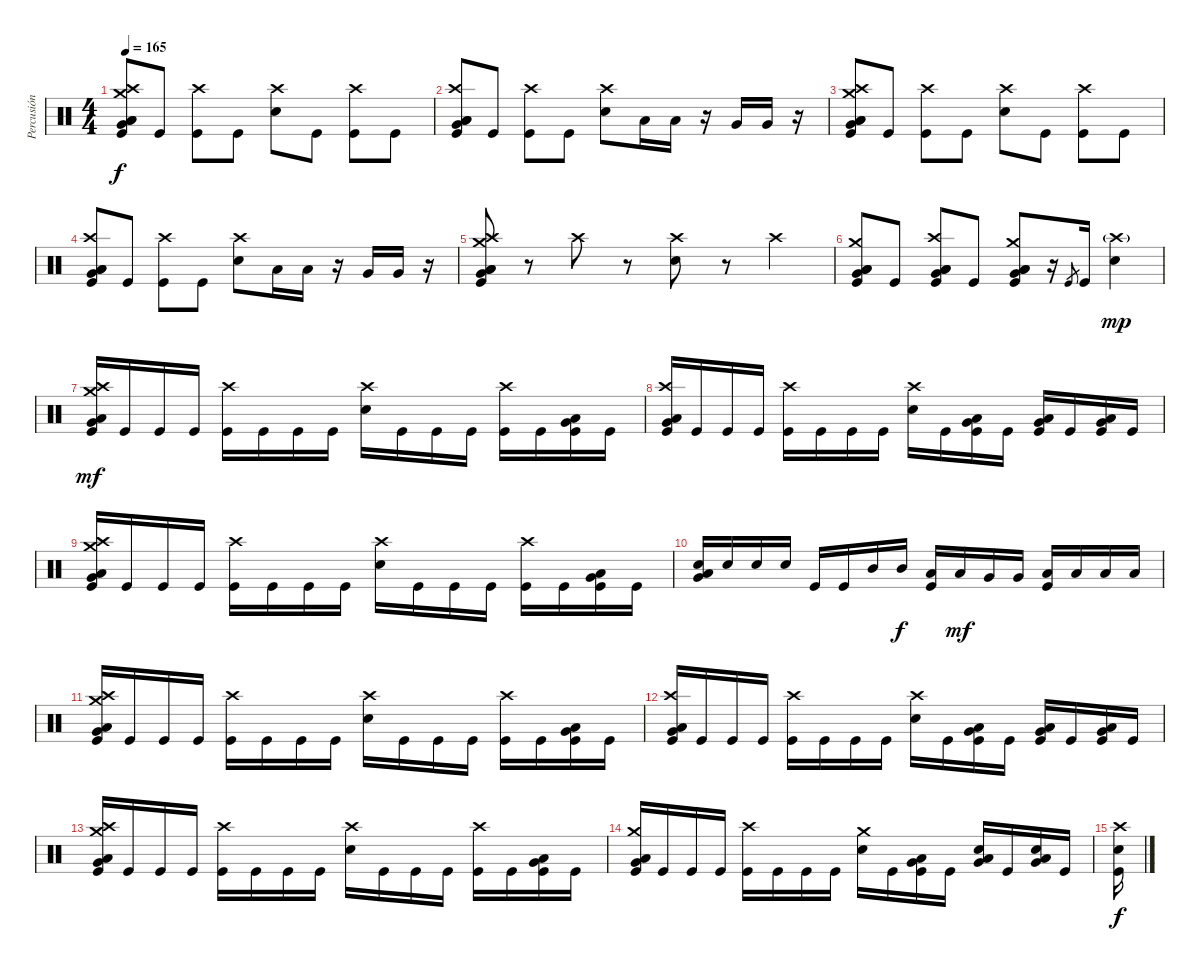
\track ("Percusión" "Percusión") {instrument percussion}
\staff {score}
\articulation defaults
\ts (4 4)
\tempo 165
\clef neutral
\ks c
("Low Floor Tom (hit)" "Very Low Tom (hit)" "Low Tom (hit)" "Crash medium (hit)" "Crash high (hit)" "Kick (hit)").8{dy f} "Kick (hit)".8 ("Crash high (hit)" "Kick (hit)").8 "Kick (hit)".8 ("Crash high (hit)" "Electric Snare (hit)").8 "Kick (hit)".8 ("Crash high (hit)" "Kick (hit)").8 "Kick (hit)".8 |
("Low Floor Tom (hit)" "Very Low Tom (hit)" "Low Tom (hit)" "Crash high (hit)" "Kick (hit)").8 "Kick (hit)".8 ("Crash high (hit)" "Kick (hit)").8 "Kick (hit)".8 ("Crash high (hit)" "Electric Snare (hit)").8 "Low Tom (hit)".16 "Low Tom (hit)".16 r.16 "Very Low Tom (hit)".16 "Very Low Tom (hit)".16 r.16 |
("Low Floor Tom (hit)" "Very Low Tom (hit)" "Low Tom (hit)" "Crash medium (hit)" "Crash high (hit)" "Kick (hit)").8 "Kick (hit)".8 ("Crash high (hit)" "Kick (hit)").8 "Kick (hit)".8 ("Crash high (hit)" "Electric Snare (hit)").8 "Kick (hit)".8 ("Crash high (hit)" "Kick (hit)").8 "Kick (hit)".8 |
("Low Floor Tom (hit)" "Very Low Tom (hit)" "Low Tom (hit)" "Crash high (hit)" "Kick (hit)").8 "Kick (hit)".8 ("Crash high (hit)" "Kick (hit)").8 "Kick (hit)".8 ("Crash high (hit)" "Electric Snare (hit)").8 "Low Tom (hit)".16 "Low Tom (hit)".16 r.16 "Very Low Tom (hit)".16 "Very Low Tom (hit)".16 r.16 |
("Low Floor Tom (hit)" "Very Low Tom (hit)" "Low Tom (hit)" "Crash medium (hit)" "Crash high (hit)" "Kick (hit)").8 r.8 "Crash high (hit)".8 r.8 ("Crash high (hit)" "Electric Snare (hit)").8 r.8 "Crash high (hit)".4 |
("Low Floor Tom (hit)" "Very Low Tom (hit)" "Low Tom (hit)" "Crash medium (hit)" "Kick (hit)").8 "Kick (hit)".8 ("Low Floor Tom (hit)" "Very Low Tom (hit)" "Low Tom (hit)" "Crash high (hit)" "Kick (hit)").8 "Kick (hit)".8 ("Low Floor Tom (hit)" "Very Low Tom (hit)" "Low Tom (hit)" "Crash medium (hit)" "Kick (hit)").8 r.16 "Kick (hit)".8{gr} "Kick (hit)".16 ("Crash high (hit)"{g} "Electric Snare (hit)").4{dy mp} |
("Very Low Tom (hit)" "Low Tom (hit)" "Crash medium (hit)" "Crash high (hit)" "Kick (hit)").16{dy mf} "Kick (hit)".16 "Kick (hit)".16 "Kick (hit)".16 ("Crash high (hit)" "Kick (hit)").16 "Kick (hit)".16 "Kick (hit)".16 "Kick (hit)".16 ("Crash high (hit)" "Electric Snare (hit)").16 "Kick (hit)".16 "Kick (hit)".16 "Kick (hit)".16 ("Crash high (hit)" "Kick (hit)").16 "Kick (hit)".16 ("Very Low Tom (hit)" "Low Tom (hit)" "Kick (hit)").16 "Kick (hit)".16 |
("Very Low Tom (hit)" "Low Tom (hit)" "Crash high (hit)" "Kick (hit)").16 "Kick (hit)".16 "Kick (hit)".16 "Kick (hit)".16 ("Crash high (hit)" "Kick (hit)").16 "Kick (hit)".16 "Kick (hit)".16 "Kick (hit)".16 ("Crash high (hit)" "Electric Snare (hit)").16 "Kick (hit)".16 ("Very Low Tom (hit)" "Low Tom (hit)" "Kick (hit)").16 "Kick (hit)".16 ("Very Low Tom (hit)" "Low Tom (hit)" "Kick (hit)").16 "Kick (hit)".16 ("Very Low Tom (hit)" "Low Tom (hit)" "Kick (hit)").16 "Kick (hit)".16 |
("Very Low Tom (hit)" "Low Tom (hit)" "Crash medium (hit)" "Crash high (hit)" "Kick (hit)").16 "Kick (hit)".16 "Kick (hit)".16 "Kick (hit)".16 ("Crash high (hit)" "Kick (hit)").16 "Kick (hit)".16 "Kick (hit)".16 "Kick (hit)".16 ("Crash high (hit)" "Electric Snare (hit)").16 "Kick (hit)".16 "Kick (hit)".16 "Kick (hit)".16 ("Crash high (hit)" "Kick (hit)").16 "Kick (hit)".16 ("Very Low Tom (hit)" "Low Tom (hit)" "Kick (hit)").16 "Kick (hit)".16 |
("Very Low Tom (hit)" "Low Tom (hit)" "Electric Snare (hit)").16 "Electric Snare (hit)".16 "Electric Snare (hit)".16 "Electric Snare (hit)".16 "Kick (hit)".16 "Kick (hit)".16 "Mid Tom (hit)".16 "Mid Tom (hit)".16{dy f} ("Kick (hit)" "Low Tom (hit)").16 "Low Tom (hit)".16{dy mf} "Very Low Tom (hit)".16 "Very Low Tom (hit)".16 ("Kick (hit)" "Low Floor Tom (hit)").16 "Low Floor Tom (hit)".16 "Low Floor Tom (hit)".16 "Low Floor Tom (hit)".16 |
("Very Low Tom (hit)" "Low Tom (hit)" "Crash medium (hit)" "Crash high (hit)" "Kick (hit)").16 "Kick (hit)".16 "Kick (hit)".16 "Kick (hit)".16 ("Crash high (hit)" "Kick (hit)").16 "Kick (hit)".16 "Kick (hit)".16 "Kick (hit)".16 ("Crash high (hit)" "Electric Snare (hit)").16 "Kick (hit)".16 "Kick (hit)".16 "Kick (hit)".16 ("Crash high (hit)" "Kick (hit)").16 "Kick (hit)".16 ("Very Low Tom (hit)" "Low Tom (hit)" "Kick (hit)").16 "Kick (hit)".16 |
("Very Low Tom (hit)" "Low Tom (hit)" "Crash high (hit)" "Kick (hit)").16 "Kick (hit)".16 "Kick (hit)".16 "Kick (hit)".16 ("Crash high (hit)" "Kick (hit)").16 "Kick (hit)".16 "Kick (hit)".16 "Kick (hit)".16 ("Crash high (hit)" "Electric Snare (hit)").16 "Kick (hit)".16 ("Very Low Tom (hit)" "Low Tom (hit)" "Kick (hit)").16 "Kick (hit)".16 ("Very Low Tom (hit)" "Low Tom (hit)" "Kick (hit)").16 "Kick (hit)".16 ("Very Low Tom (hit)" "Low Tom (hit)" "Kick (hit)").16 "Kick (hit)".16 |
("Very Low Tom (hit)" "Low Tom (hit)" "Crash medium (hit)" "Crash high (hit)" "Kick (hit)").16 "Kick (hit)".16 "Kick (hit)".16 "Kick (hit)".16 ("Crash high (hit)" "Kick (hit)").16 "Kick (hit)".16 "Kick (hit)".16 "Kick (hit)".16 ("Crash high (hit)" "Electric Snare (hit)").16 "Kick (hit)".16 "Kick (hit)".16 "Kick (hit)".16 ("Crash high (hit)" "Kick (hit)").16 "Kick (hit)".16 ("Very Low Tom (hit)" "Low Tom (hit)" "Kick (hit)").16 "Kick (hit)".16 |
("Very Low Tom (hit)" "Low Tom (hit)" "Crash medium (hit)" "Kick (hit)").16 "Kick (hit)".16 "Kick (hit)".16 "Kick (hit)".16 ("Crash high (hit)" "Kick (hit)").16 "Kick (hit)".16 "Kick (hit)".16 "Kick (hit)".16 ("Crash medium (hit)" "Electric Snare (hit)").16 "Kick (hit)".16 ("Very Low Tom (hit)" "Low Tom (hit)" "Kick (hit)").16 "Kick (hit)".16 ("Very Low Tom (hit)" "Low Tom (hit)" "Electric Snare (hit)").16 "Kick (hit)".16 ("Very Low Tom (hit)" "Low Tom (hit)" "Electric Snare (hit)").16 "Kick (hit)".16 |
("Kick (hit)" "Crash high (hit)" "Electric Snare (hit)").16{dy f}
